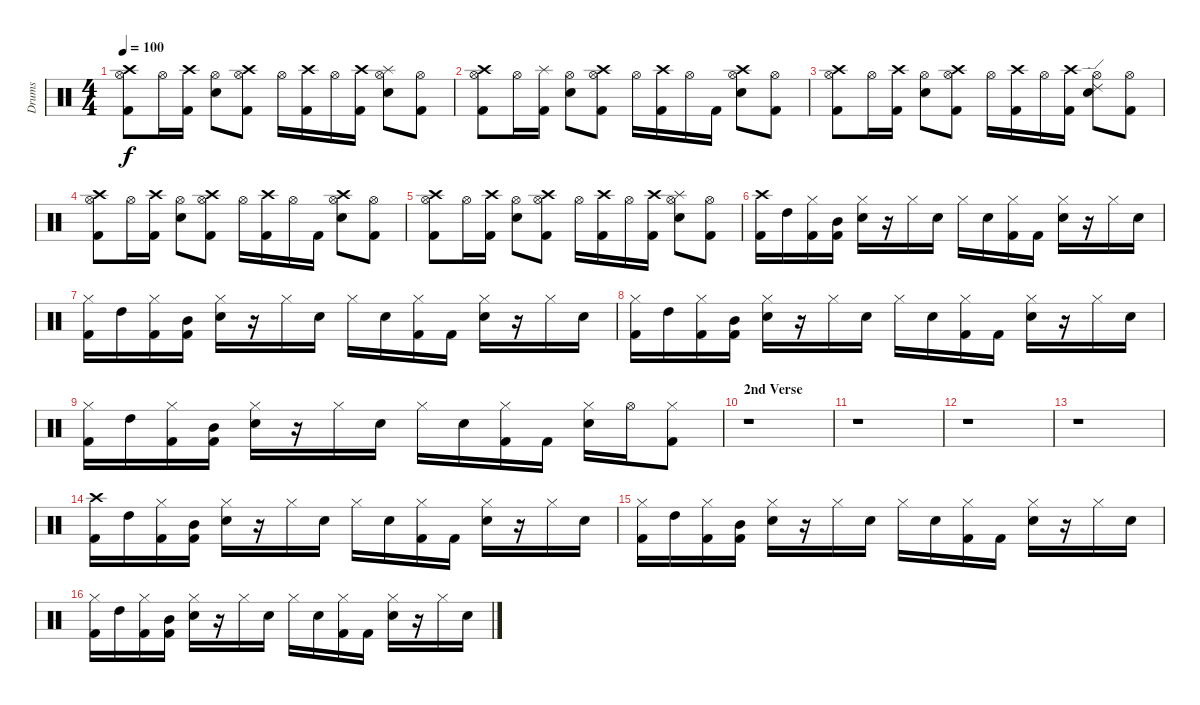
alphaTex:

\track ("Drums" "Drums") {instrument percussion}
\staff {score}
\articulation defaults
\ts (4 4)
\tempo 100
\clef neutral
\ks c
("Hi-Hat (open)" "Crash high (hit)" "Kick (hit) 2").8{dy f} "Hi-Hat (open)".16 ("Crash high (hit)" "Kick (hit) 2").16 ("Hi-Hat (open)" "Electric Snare (hit)").8 ("Hi-Hat (open)" "Crash high (hit)" "Kick (hit) 2").8 "Hi-Hat (open)".16 ("Crash high (hit)" "Kick (hit) 2").16 "Hi-Hat (open)".16 ("Crash high (hit)" "Kick (hit) 2").16 ("Hi-Hat (open)" "Splash (hit)" "Electric Snare (hit)").8 ("Hi-Hat (open)" "Kick (hit) 2").8 |
("Hi-Hat (open)" "Crash high (hit)" "Kick (hit) 2").8 "Hi-Hat (open)".16 ("Splash (hit)" "Kick (hit) 2").16 ("Hi-Hat (open)" "Electric Snare (hit)").8 ("Hi-Hat (open)" "Crash high (hit)" "Kick (hit) 2").8 "Hi-Hat (open)".16 ("Crash high (hit)" "Kick (hit) 2").16 "Hi-Hat (open)".16 "Kick (hit) 2".16 ("Hi-Hat (open)" "Crash high (hit)" "Electric Snare (hit)").8 ("Hi-Hat (open)" "Kick (hit) 2").8 |
("Hi-Hat (open)" "Crash high (hit)" "Kick (hit) 2").8 "Hi-Hat (open)".16 ("Crash high (hit)" "Kick (hit) 2").16 ("Hi-Hat (open)" "Electric Snare (hit)").8 ("Hi-Hat (open)" "Crash high (hit)" "Kick (hit) 2").8 "Hi-Hat (open)".16 ("Crash high (hit)" "Kick (hit) 2").16 "Hi-Hat (open)".16 ("Crash high (hit)" "Kick (hit) 2").16 ("Hi-Hat (open)" "Ride (edge) 2" "Electric Snare (hit)").8 ("Hi-Hat (open)" "Kick (hit) 2").8 |
("Hi-Hat (open)" "Crash high (hit)" "Kick (hit) 2").8 "Hi-Hat (open)".16 ("Crash high (hit)" "Kick (hit) 2").16 ("Hi-Hat (open)" "Electric Snare (hit)").8 ("Hi-Hat (open)" "Crash high (hit)" "Kick (hit) 2").8 "Hi-Hat (open)".16 ("Crash high (hit)" "Kick (hit) 2").16 "Hi-Hat (open)".16 "Kick (hit) 2".16 ("Hi-Hat (open)" "Crash high (hit)" "Electric Snare (hit)").8 ("Hi-Hat (open)" "Kick (hit) 2").8 |
("Hi-Hat (open)" "Crash high (hit)" "Kick (hit) 2").8 "Hi-Hat (open)".16 ("Crash high (hit)" "Kick (hit) 2").16 ("Hi-Hat (open)" "Electric Snare (hit)").8 ("Hi-Hat (open)" "Crash high (hit)" "Kick (hit) 2").8 "Hi-Hat (open)".16 ("Crash high (hit)" "Kick (hit) 2").16 "Hi-Hat (open)".16 ("Crash high (hit)" "Kick (hit) 2").16 ("Hi-Hat (open)" "Splash (hit)" "Electric Snare (hit)").8 ("Hi-Hat (open)" "Kick (hit) 2").8 |
("Crash high (hit)" "Kick (hit) 2").16 "High Tom (hit)".16 ("Hi-Hat (closed)" "Kick (hit) 2").16 ("Mid Tom (hit)" "Kick (hit) 2").16 ("Hi-Hat (closed)" "Electric Snare (hit)").16 r.16 "Hi-Hat (closed)".16 "Electric Snare (hit)".16 "Hi-Hat (closed)".16 "Electric Snare (hit)".16 ("Hi-Hat (closed)" "Kick (hit) 2").16 "Kick (hit) 2".16 ("Hi-Hat (closed)" "Electric Snare (hit)").16 r.16 "Hi-Hat (closed)".16 "Electric Snare (hit)".16 |
("Hi-Hat (closed)" "Kick (hit) 2").16 "High Tom (hit)".16 ("Hi-Hat (closed)" "Kick (hit) 2").16 ("Mid Tom (hit)" "Kick (hit) 2").16 ("Hi-Hat (closed)" "Electric Snare (hit)").16 r.16 "Hi-Hat (closed)".16 "Electric Snare (hit)".16 "Hi-Hat (closed)".16 "Electric Snare (hit)".16 ("Hi-Hat (closed)" "Kick (hit) 2").16 "Kick (hit) 2".16 ("Hi-Hat (closed)" "Electric Snare (hit)").16 r.16 "Hi-Hat (closed)".16 "Electric Snare (hit)".16 |
("Hi-Hat (closed)" "Kick (hit) 2").16 "High Tom (hit)".16 ("Hi-Hat (closed)" "Kick (hit) 2").16 ("Mid Tom (hit)" "Kick (hit) 2").16 ("Hi-Hat (closed)" "Electric Snare (hit)").16 r.16 "Hi-Hat (closed)".16 "Electric Snare (hit)".16 "Hi-Hat (closed)".16 "Electric Snare (hit)".16 ("Hi-Hat (closed)" "Kick (hit) 2").16 "Kick (hit) 2".16 ("Hi-Hat (closed)" "Electric Snare (hit)").16 r.16 "Hi-Hat (closed)".16 "Electric Snare (hit)".16 |
("Hi-Hat (closed)" "Kick (hit) 2").16 "High Tom (hit)".16 ("Hi-Hat (closed)" "Kick (hit) 2").16 ("Mid Tom (hit)" "Kick (hit) 2").16 ("Hi-Hat (closed)" "Electric Snare (hit)").16 r.16 "Hi-Hat (closed)".16 "Electric Snare (hit)".16 "Hi-Hat (closed)".16 "Electric Snare (hit)".16 ("Hi-Hat (closed)" "Kick (hit) 2").16 "Kick (hit) 2".16 ("Hi-Hat (closed)" "Electric Snare (hit)").16 "Hi-Hat (open)".16 ("Hi-Hat (closed)" "Kick (hit) 2").8 |
\section ("" "2nd Verse")
r.1 |
r.1 |
r.1 |
r.1 |
("Crash high (hit)" "Kick (hit) 2").16 "High Tom (hit)".16 ("Hi-Hat (closed)" "Kick (hit) 2").16 ("Mid Tom (hit)" "Kick (hit) 2").16 ("Hi-Hat (closed)" "Electric Snare (hit)").16 r.16 "Hi-Hat (closed)".16 "Electric Snare (hit)".16 "Hi-Hat (closed)".16 "Electric Snare (hit)".16 ("Hi-Hat (closed)" "Kick (hit) 2").16 "Kick (hit) 2".16 ("Hi-Hat (closed)" "Electric Snare (hit)").16 r.16 "Hi-Hat (closed)".16 "Electric Snare (hit)".16 |
("Hi-Hat (closed)" "Kick (hit) 2").16 "High Tom (hit)".16 ("Hi-Hat (closed)" "Kick (hit) 2").16 ("Mid Tom (hit)" "Kick (hit) 2").16 ("Hi-Hat (closed)" "Electric Snare (hit)").16 r.16 "Hi-Hat (closed)".16 "Electric Snare (hit)".16 "Hi-Hat (closed)".16 "Electric Snare (hit)".16 ("Hi-Hat (closed)" "Kick (hit) 2").16 "Kick (hit) 2".16 ("Hi-Hat (closed)" "Electric Snare (hit)").16 r.16 "Hi-Hat (closed)".16 "Electric Snare (hit)".16 |
("Hi-Hat (closed)" "Kick (hit) 2").16 "High Tom (hit)".16 ("Hi-Hat (closed)" "Kick (hit) 2").16 ("Mid Tom (hit)" "Kick (hit) 2").16 ("Hi-Hat (closed)" "Electric Snare (hit)").16 r.16 "Hi-Hat (closed)".16 "Electric Snare (hit)".16 "Hi-Hat (closed)".16 "Electric Snare (hit)".16 ("Hi-Hat (closed)" "Kick (hit) 2").16 "Kick (hit) 2".16 ("Hi-Hat (closed)" "Electric Snare (hit)").16 r.16 "Hi-Hat (closed)".16 "Electric Snare (hit)".16
